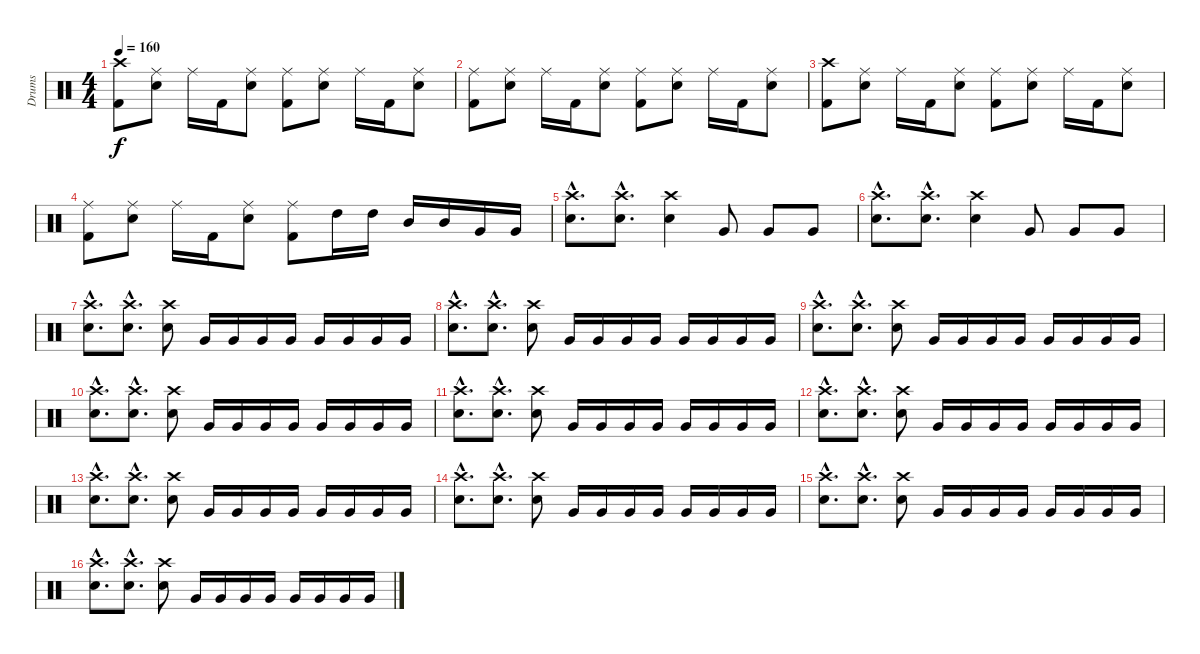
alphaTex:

\track ("Drums" "Drums") {instrument percussion}
\staff {score}
\articulation defaults
\ts (4 4)
\tempo 160
\clef neutral
\ks c
("Crash high (hit)" "Kick (hit) 2").8{dy f} ("Ride (middle)" "Snare (hit) 2").8 "Ride (middle)".16 "Kick (hit) 2".16 ("Ride (middle)" "Snare (hit) 2").8 ("Ride (middle)" "Kick (hit) 2").8 ("Ride (middle)" "Snare (hit) 2").8 "Ride (middle)".16 "Kick (hit) 2".16 ("Ride (middle)" "Snare (hit) 2").8 |
("Ride (middle)" "Kick (hit) 2").8 ("Ride (middle)" "Snare (hit) 2").8 "Ride (middle)".16 "Kick (hit) 2".16 ("Ride (middle)" "Snare (hit) 2").8 ("Ride (middle)" "Kick (hit) 2").8 ("Ride (middle)" "Snare (hit) 2").8 "Ride (middle)".16 "Kick (hit) 2".16 ("Ride (middle)" "Snare (hit) 2").8 |
("Crash high (hit)" "Kick (hit) 2").8 ("Ride (middle)" "Snare (hit) 2").8 "Ride (middle)".16 "Kick (hit) 2".16 ("Ride (middle)" "Snare (hit) 2").8 ("Ride (middle)" "Kick (hit) 2").8 ("Ride (middle)" "Snare (hit) 2").8 "Ride (middle)".16 "Kick (hit) 2".16 ("Ride (middle)" "Snare (hit) 2").8 |
("Ride (middle)" "Kick (hit) 2").8 ("Ride (middle)" "Snare (hit) 2").8 "Ride (middle)".16 "Kick (hit) 2".16 ("Ride (middle)" "Snare (hit) 2").8 ("Ride (middle)" "Kick (hit) 2").8 "High Tom (hit)".16 "High Tom (hit)".16 "Mid Tom (hit)".16 "Mid Tom (hit)".16 "Very Low Tom (hit)".16 "Very Low Tom (hit)".16 |
("Crash high (hit)"{hac} "Snare (hit) 2"{hac}).8{d} ("Crash high (hit)"{hac} "Snare (hit) 2"{hac}).8{d} ("Crash high (hit)" "Snare (hit) 2").4 "Very Low Tom (hit)".8 "Very Low Tom (hit)".8 "Very Low Tom (hit)".8 |
("Crash high (hit)"{hac} "Snare (hit) 2"{hac}).8{d} ("Crash high (hit)"{hac} "Snare (hit) 2"{hac}).8{d} ("Crash high (hit)" "Snare (hit) 2").4 "Very Low Tom (hit)".8 "Very Low Tom (hit)".8 "Very Low Tom (hit)".8 |
("Crash high (hit)"{hac} "Snare (hit) 2"{hac}).8{d} ("Crash high (hit)"{hac} "Snare (hit) 2"{hac}).8{d} ("Crash high (hit)" "Snare (hit) 2").8 "Very Low Tom (hit)".16 "Very Low Tom (hit)".16 "Very Low Tom (hit)".16 "Very Low Tom (hit)".16 "Very Low Tom (hit)".16 "Very Low Tom (hit)".16 "Very Low Tom (hit)".16 "Very Low Tom (hit)".16 |
("Crash high (hit)"{hac} "Snare (hit) 2"{hac}).8{d} ("Crash high (hit)"{hac} "Snare (hit) 2"{hac}).8{d} ("Crash high (hit)" "Snare (hit) 2").8 "Very Low Tom (hit)".16 "Very Low Tom (hit)".16 "Very Low Tom (hit)".16 "Very Low Tom (hit)".16 "Very Low Tom (hit)".16 "Very Low Tom (hit)".16 "Very Low Tom (hit)".16 "Very Low Tom (hit)".16 |
("Crash high (hit)"{hac} "Snare (hit) 2"{hac}).8{d} ("Crash high (hit)"{hac} "Snare (hit) 2"{hac}).8{d} ("Crash high (hit)" "Snare (hit) 2").8 "Very Low Tom (hit)".16 "Very Low Tom (hit)".16 "Very Low Tom (hit)".16 "Very Low Tom (hit)".16 "Very Low Tom (hit)".16 "Very Low Tom (hit)".16 "Very Low Tom (hit)".16 "Very Low Tom (hit)".16 |
("Crash high (hit)"{hac} "Snare (hit) 2"{hac}).8{d} ("Crash high (hit)"{hac} "Snare (hit) 2"{hac}).8{d} ("Crash high (hit)" "Snare (hit) 2").8 "Very Low Tom (hit)".16 "Very Low Tom (hit)".16 "Very Low Tom (hit)".16 "Very Low Tom (hit)".16 "Very Low Tom (hit)".16 "Very Low Tom (hit)".16 "Very Low Tom (hit)".16 "Very Low Tom (hit)".16 |
("Crash high (hit)"{hac} "Snare (hit) 2"{hac}).8{d} ("Crash high (hit)"{hac} "Snare (hit) 2"{hac}).8{d} ("Crash high (hit)" "Snare (hit) 2").8 "Very Low Tom (hit)".16 "Very Low Tom (hit)".16 "Very Low Tom (hit)".16 "Very Low Tom (hit)".16 "Very Low Tom (hit)".16 "Very Low Tom (hit)".16 "Very Low Tom (hit)".16 "Very Low Tom (hit)".16 |
("Crash high (hit)"{hac} "Snare (hit) 2"{hac}).8{d} ("Crash high (hit)"{hac} "Snare (hit) 2"{hac}).8{d} ("Crash high (hit)" "Snare (hit) 2").8 "Very Low Tom (hit)".16 "Very Low Tom (hit)".16 "Very Low Tom (hit)".16 "Very Low Tom (hit)".16 "Very Low Tom (hit)".16 "Very Low Tom (hit)".16 "Very Low Tom (hit)".16 "Very Low Tom (hit)".16 |
("Crash high (hit)"{hac} "Snare (hit) 2"{hac}).8{d} ("Crash high (hit)"{hac} "Snare (hit) 2"{hac}).8{d} ("Crash high (hit)" "Snare (hit) 2").8 "Very Low Tom (hit)".16 "Very Low Tom (hit)".16 "Very Low Tom (hit)".16 "Very Low Tom (hit)".16 "Very Low Tom (hit)".16 "Very Low Tom (hit)".16 "Very Low Tom (hit)".16 "Very Low Tom (hit)".16 |
("Crash high (hit)"{hac} "Snare (hit) 2"{hac}).8{d} ("Crash high (hit)"{hac} "Snare (hit) 2"{hac}).8{d} ("Crash high (hit)" "Snare (hit) 2").8 "Very Low Tom (hit)".16 "Very Low Tom (hit)".16 "Very Low Tom (hit)".16 "Very Low Tom (hit)".16 "Very Low Tom (hit)".16 "Very Low Tom (hit)".16 "Very Low Tom (hit)".16 "Very Low Tom (hit)".16 |
("Crash high (hit)"{hac} "Snare (hit) 2"{hac}).8{d} ("Crash high (hit)"{hac} "Snare (hit) 2"{hac}).8{d} ("Crash high (hit)" "Snare (hit) 2").8 "Very Low Tom (hit)".16 "Very Low Tom (hit)".16 "Very Low Tom (hit)".16 "Very Low Tom (hit)".16 "Very Low Tom (hit)".16 "Very Low Tom (hit)".16 "Very Low Tom (hit)".16 "Very Low Tom (hit)".16 |
("Crash high (hit)"{hac} "Snare (hit) 2"{hac}).8{d} ("Crash high (hit)"{hac} "Snare (hit) 2"{hac}).8{d} ("Crash high (hit)" "Snare (hit) 2").8 "Very Low Tom (hit)".16 "Very Low Tom (hit)".16 "Very Low Tom (hit)".16 "Very Low Tom (hit)".16 "Very Low Tom (hit)".16 "Very Low Tom (hit)".16 "Very Low Tom (hit)".16 "Very Low Tom (hit)".16
